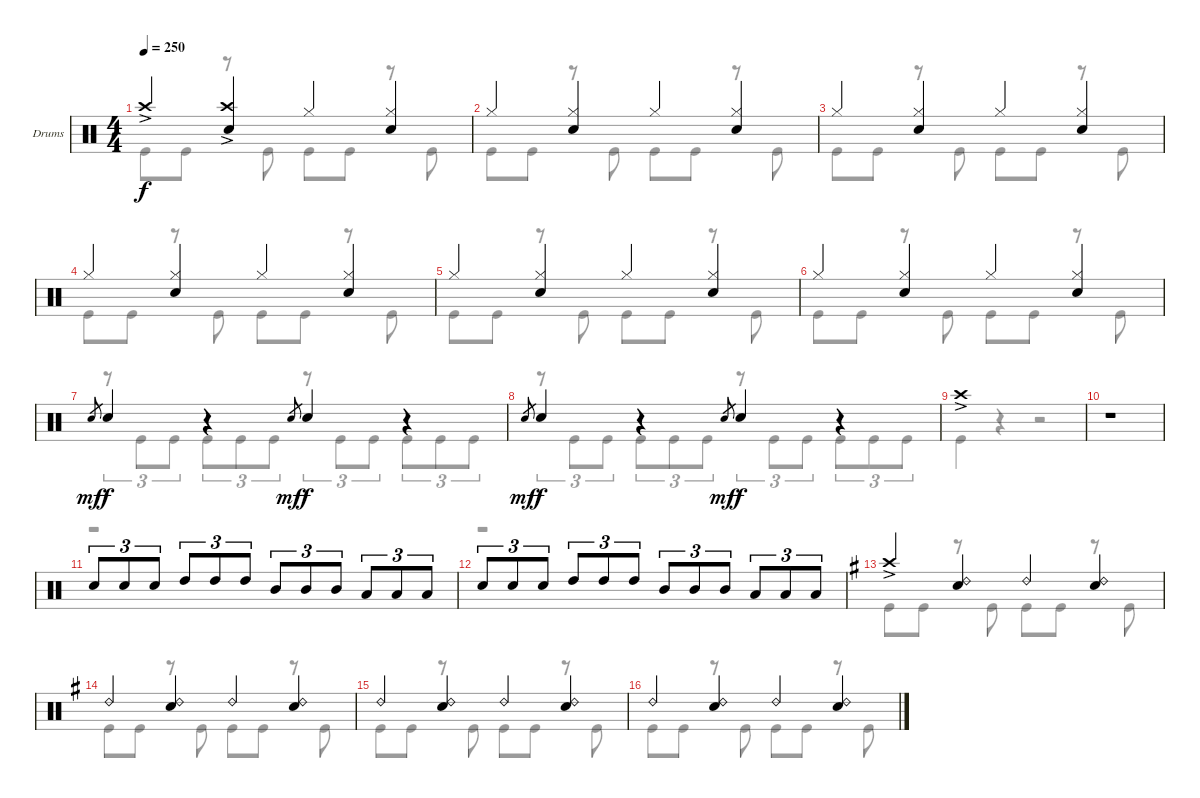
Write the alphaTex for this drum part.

\bracketExtendMode groupsimilarinstruments
\firstSystemTrackNameOrientation horizontal
\otherSystemsTrackNameOrientation horizontal
\track ("Drumkit" "Drums") {instrument percussion}
\staff {score}
\articulation defaults
\voice
\ts (4 4)
\tempo 250
\clef neutral
\ks c "Crash high (hit)"{ac}.4{dy f}
("Crash high (hit)"{ac} "Snare (hit) 2").4 "Hi-Hat (closed)".4 ("Hi-Hat (closed)" "Snare (hit) 2").4 |
"Hi-Hat (closed)".4 ("Hi-Hat (closed)" "Snare (hit) 2").4 "Hi-Hat (closed)".4 ("Hi-Hat (closed)" "Snare (hit) 2").4 |
"Hi-Hat (closed)".4 ("Hi-Hat (closed)" "Snare (hit) 2").4 "Hi-Hat (closed)".4 ("Hi-Hat (closed)" "Snare (hit) 2").4 |
"Hi-Hat (closed)".4 ("Hi-Hat (closed)" "Snare (hit) 2").4 "Hi-Hat (closed)".4 ("Hi-Hat (closed)" "Snare (hit) 2").4 |
"Hi-Hat (closed)".4 ("Hi-Hat (closed)" "Snare (hit) 2").4 "Hi-Hat (closed)".4 ("Hi-Hat (closed)" "Snare (hit) 2").4 |
"Hi-Hat (closed)".4 ("Hi-Hat (closed)" "Snare (hit) 2").4 "Hi-Hat (closed)".4 ("Hi-Hat (closed)" "Snare (hit) 2").4 |
"Snare (hit) 2".8{gr dy mf} "Snare (hit) 2".4{dy f} r.4 "Snare (hit) 2".8{gr dy mf} "Snare (hit) 2".4{dy f} r.4 |
"Snare (hit) 2".8{gr dy mf} "Snare (hit) 2".4{dy f} r.4 "Snare (hit) 2".8{gr dy mf} "Snare (hit) 2".4{dy f} r.4 |
"Crash high (hit)"{ac}.1 |
r.1 |
"Snare (hit) 2".8{tu (3 2)} "Snare (hit) 2".8{tu (3 2)} "Snare (hit) 2".8{tu (3 2)} "High Tom (hit)".8{tu (3 2)} "High Tom (hit)".8{tu (3 2)} "High Tom (hit)".8{tu (3 2)} "Mid Tom (hit)".8{tu (3 2)} "Mid Tom (hit)".8{tu (3 2)} "Mid Tom (hit)".8{tu (3 2)} "Low Tom (hit)".8{tu (3 2)} "Low Tom (hit)".8{tu (3 2)} "Low Tom (hit)".8{tu (3 2)} |
"Snare (hit) 2".8{tu (3 2)} "Snare (hit) 2".8{tu (3 2)} "Snare (hit) 2".8{tu (3 2)} "High Tom (hit)".8{tu (3 2)} "High Tom (hit)".8{tu (3 2)} "High Tom (hit)".8{tu (3 2)} "Mid Tom (hit)".8{tu (3 2)} "Mid Tom (hit)".8{tu (3 2)} "Mid Tom (hit)".8{tu (3 2)} "Low Tom (hit)".8{tu (3 2)} "Low Tom (hit)".8{tu (3 2)} "Low Tom (hit)".8{tu (3 2)} |
\ks g "Crash high (hit)"{ac}.4
("Ride (bell) 2" "Snare (hit) 2").4 "Ride (bell) 2".4 ("Ride (bell) 2" "Snare (hit) 2").4 |
"Ride (bell) 2".4 ("Ride (bell) 2" "Snare (hit) 2").4 "Ride (bell) 2".4 ("Ride (bell) 2" "Snare (hit) 2").4 |
"Ride (bell) 2".4 ("Ride (bell) 2" "Snare (hit) 2").4 "Ride (bell) 2".4 ("Ride (bell) 2" "Snare (hit) 2").4 |
"Ride (bell) 2".4 ("Ride (bell) 2" "Snare (hit) 2").4 "Ride (bell) 2".4 ("Ride (bell) 2" "Snare (hit) 2").4
\voice
\clef neutral
\ottava regular
\simile none
\ks c "Kick (hit)".8{dy f} "Kick (hit)".8
r.8 "Kick (hit)".8 "Kick (hit)".8 "Kick (hit)".8 r.8 "Kick (hit)".8 |
"Kick (hit)".8 "Kick (hit)".8 r.8 "Kick (hit)".8 "Kick (hit)".8 "Kick (hit)".8 r.8 "Kick (hit)".8 |
"Kick (hit)".8 "Kick (hit)".8 r.8 "Kick (hit)".8 "Kick (hit)".8 "Kick (hit)".8 r.8 "Kick (hit)".8 |
"Kick (hit)".8 "Kick (hit)".8 r.8 "Kick (hit)".8 "Kick (hit)".8 "Kick (hit)".8 r.8 "Kick (hit)".8 |
"Kick (hit)".8 "Kick (hit)".8 r.8 "Kick (hit)".8 "Kick (hit)".8 "Kick (hit)".8 r.8 "Kick (hit)".8 |
"Kick (hit)".8 "Kick (hit)".8 r.8 "Kick (hit)".8 "Kick (hit)".8 "Kick (hit)".8 r.8 "Kick (hit)".8 |
r.8{tu (3 2)} "Kick (hit)".8{tu (3 2)} "Kick (hit)".8{tu (3 2)} "Kick (hit)".8{tu (3 2)} "Kick (hit)".8{tu (3 2)} "Kick (hit)".8{tu (3 2)} r.8{tu (3 2)} "Kick (hit)".8{tu (3 2)} "Kick (hit)".8{tu (3 2)} "Kick (hit)".8{tu (3 2)} "Kick (hit)".8{tu (3 2)} "Kick (hit)".8{tu (3 2)} |
r.8{tu (3 2)} "Kick (hit)".8{tu (3 2)} "Kick (hit)".8{tu (3 2)} "Kick (hit)".8{tu (3 2)} "Kick (hit)".8{tu (3 2)} "Kick (hit)".8{tu (3 2)} r.8{tu (3 2)} "Kick (hit)".8{tu (3 2)} "Kick (hit)".8{tu (3 2)} "Kick (hit)".8{tu (3 2)} "Kick (hit)".8{tu (3 2)} "Kick (hit)".8{tu (3 2)} |
"Kick (hit)".4 r.4 r.2 |
r.1 |
r.1 |
r.1 |
\ks g "Kick (hit)".8 "Kick (hit)".8
r.8 "Kick (hit)".8 "Kick (hit)".8 "Kick (hit)".8 r.8 "Kick (hit)".8 |
"Kick (hit)".8 "Kick (hit)".8 r.8 "Kick (hit)".8 "Kick (hit)".8 "Kick (hit)".8 r.8 "Kick (hit)".8 |
"Kick (hit)".8 "Kick (hit)".8 r.8 "Kick (hit)".8 "Kick (hit)".8 "Kick (hit)".8 r.8 "Kick (hit)".8 |
"Kick (hit)".8 "Kick (hit)".8 r.8 "Kick (hit)".8 "Kick (hit)".8 "Kick (hit)".8 r.8 "Kick (hit)".8
